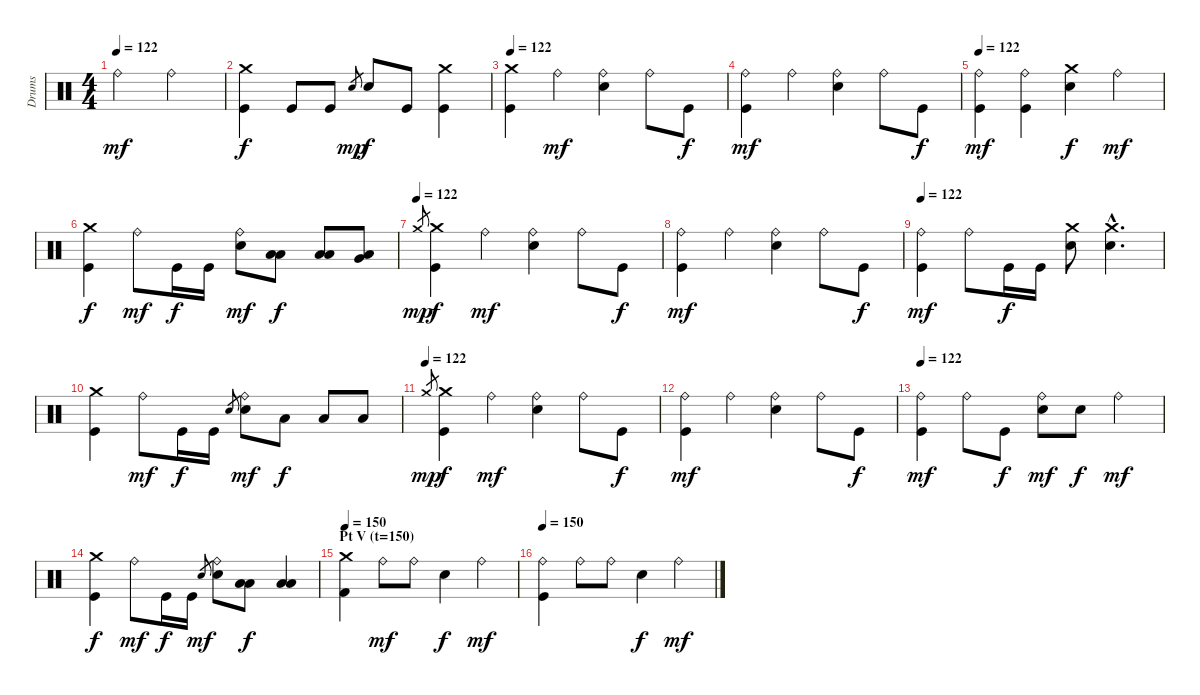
\track ("Drums" "Drums") {instrument percussion}
\staff {score}
\articulation defaults
\ts (4 4)
\tempo 122
\clef neutral
\ks c "Ride (bell)".2{dy mf} "Ride (bell)".2
|
("Kick (hit)" "Crash medium (hit)").4{dy f} "Kick (hit)".8 "Kick (hit)".8 "Electric Snare (hit)".8{gr dy mp} "Electric Snare (hit)".8{dy f} "Kick (hit)".8 ("Kick (hit)" "Crash medium (hit)").4 |
\tempo 122
("Kick (hit)" "Crash medium (hit)").4 "Ride (bell)".4{dy mf} ("Electric Snare (hit)" "Ride (bell)").4 "Ride (bell)".8 "Kick (hit)".8{dy f} |
("Kick (hit)" "Ride (bell)").4{dy mf} "Ride (bell)".4 ("Electric Snare (hit)" "Ride (bell)").4 "Ride (bell)".8 "Kick (hit)".8{dy f} |
\tempo 122
("Kick (hit)" "Ride (bell)").4{dy mf} ("Kick (hit)" "Ride (bell)").4 ("Electric Snare (hit)" "Crash medium (hit)").4{dy f} "Ride (bell)".4{dy mf} |
("Kick (hit)" "Crash medium (hit)").4{dy f} "Ride (bell)".8{dy mf} "Kick (hit)".16{dy f} "Kick (hit)".16 ("Electric Snare (hit)" "Ride (bell)").8{dy mf} ("Low Tom (hit)" "Low Tom (hit)").8{dy f} ("Low Tom (hit)" "Low Tom (hit)").8 ("Very Low Tom (hit)" "Low Tom (hit)").8 |
\tempo (122)
"Crash medium (hit)".8{gr dy mp} ("Kick (hit)" "Crash medium (hit)").4{dy f} "Ride (bell)".4{dy mf} ("Electric Snare (hit)" "Ride (bell)").4 "Ride (bell)".8 "Kick (hit)".8{dy f} |
("Kick (hit)" "Ride (bell)").4{dy mf} "Ride (bell)".4 ("Electric Snare (hit)" "Ride (bell)").4 "Ride (bell)".8 "Kick (hit)".8{dy f} |
\tempo 122
("Kick (hit)" "Ride (bell)").4{dy mf} "Ride (bell)".8 "Kick (hit)".16{dy f} "Kick (hit)".16 ("Electric Snare (hit)" "Crash medium (hit)").8 ("Electric Snare (hit)"{hac} "Crash medium (hit)"{hac}).4{d} |
("Kick (hit)" "Crash medium (hit)").4 "Ride (bell)".8{dy mf} "Kick (hit)".16{dy f} "Kick (hit)".16 "Electric Snare (hit)".8{gr} ("Electric Snare (hit)" "Ride (bell)").8{dy mf} "Low Tom (hit)".8{dy f} "Low Tom (hit)".8 "Low Tom (hit)".8 |
\tempo (122)
"Crash medium (hit)".8{gr dy mp} ("Kick (hit)" "Crash medium (hit)").4{dy f} "Ride (bell)".4{dy mf} ("Electric Snare (hit)" "Ride (bell)").4 "Ride (bell)".8 "Kick (hit)".8{dy f} |
("Kick (hit)" "Ride (bell)").4{dy mf} "Ride (bell)".4 ("Electric Snare (hit)" "Ride (bell)").4 "Ride (bell)".8 "Kick (hit)".8{dy f} |
\tempo 122
("Kick (hit)" "Ride (bell)").4{dy mf} "Ride (bell)".8 "Kick (hit)".8{dy f} ("Electric Snare (hit)" "Ride (bell)").8{dy mf} "Electric Snare (hit)".8{dy f} "Ride (bell)".4{dy mf} |
("Kick (hit)" "Crash medium (hit)").4{dy f} "Ride (bell)".8{dy mf} "Kick (hit)".16{dy f} "Kick (hit)".16 "Electric Snare (hit)".8{gr dy mf} ("Electric Snare (hit)" "Ride (bell)").8 ("Low Tom (hit)" "Low Tom (hit)").8{dy f} ("Low Tom (hit)" "Low Tom (hit)").4 |
\section ("" "Pt V (t=150)")
\tempo 150
("Kick (hit) 2" "Crash medium (hit)").4 "Ride (bell)".8{dy mf} "Ride (bell)".8 "Electric Snare (hit)".4{dy f} "Ride (bell)".4{dy mf} |
\tempo 150
("Kick (hit)" "Ride (bell)").4 "Ride (bell)".8 "Ride (bell)".8 "Electric Snare (hit)".4{dy f} "Ride (bell)".4{dy mf}
